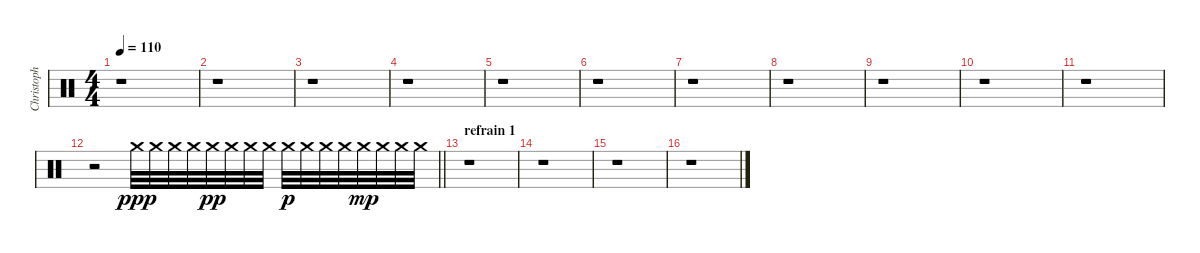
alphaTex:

\track ("Christoph" "Christoph") {instrument percussion}
\staff {score}
\articulation defaults
\ts (4 4)
\tempo 110
\clef neutral
\ks c
r.1{dy ppp} |
r.1 |
r.1 |
r.1 |
r.1 |
r.1 |
r.1 |
r.1 |
r.1 |
r.1 |
r.1 |
\barLineRight lightlight
r.2 "Crash medium (hit)".32 "Crash medium (hit)".32 "Crash medium (hit)".32 "Crash medium (hit)".32 "Crash medium (hit)".32{dy pp} "Crash medium (hit)".32 "Crash medium (hit)".32 "Crash medium (hit)".32 "Crash medium (hit)".32{dy p} "Crash medium (hit)".32 "Crash medium (hit)".32 "Crash medium (hit)".32 "Crash medium (hit)".32{dy mp} "Crash medium (hit)".32 "Crash medium (hit)".32 "Crash medium (hit)".32 |
\section ("" "refrain 1")
r.1 |
r.1 |
r.1 |
r.1
